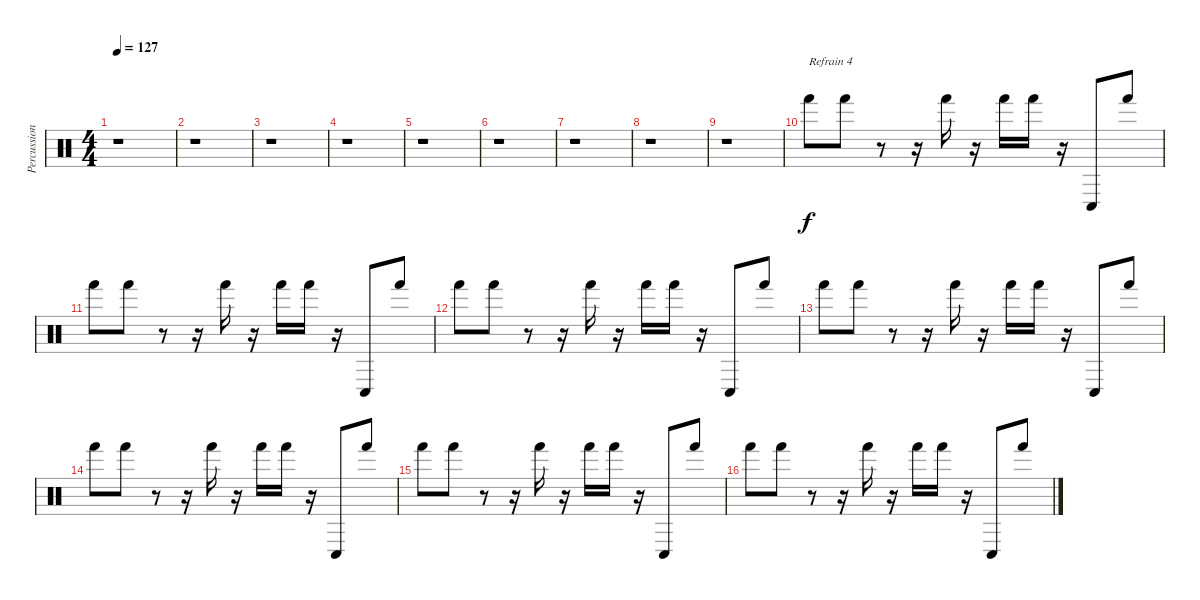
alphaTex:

\track ("Percussions" "Percussion") {instrument percussion}
\staff {score}
\articulation defaults
\ts (4 4)
\tempo 127
\clef neutral
\ks c
r.1{dy f} |
r.1 |
r.1 |
r.1 |
r.1 |
r.1 |
r.1 |
r.1 |
r.1 |
"Hand (hit)".8{txt "Refrain 4"} "Hand (hit)".8 r.8 r.16 "Hand (hit)".16 r.16 "Hand (hit)".16 "Hand (hit)".16 r.16 "Conga low (hit)".8 "Hand (hit)".8 |
"Hand (hit)".8 "Hand (hit)".8 r.8 r.16 "Hand (hit)".16 r.16 "Hand (hit)".16 "Hand (hit)".16 r.16 "Conga low (hit)".8 "Hand (hit)".8 |
"Hand (hit)".8 "Hand (hit)".8 r.8 r.16 "Hand (hit)".16 r.16 "Hand (hit)".16 "Hand (hit)".16 r.16 "Conga low (hit)".8 "Hand (hit)".8 |
"Hand (hit)".8 "Hand (hit)".8 r.8 r.16 "Hand (hit)".16 r.16 "Hand (hit)".16 "Hand (hit)".16 r.16 "Conga low (hit)".8 "Hand (hit)".8 |
"Hand (hit)".8 "Hand (hit)".8 r.8 r.16 "Hand (hit)".16 r.16 "Hand (hit)".16 "Hand (hit)".16 r.16 "Conga low (hit)".8 "Hand (hit)".8 |
"Hand (hit)".8 "Hand (hit)".8 r.8 r.16 "Hand (hit)".16 r.16 "Hand (hit)".16 "Hand (hit)".16 r.16 "Conga low (hit)".8 "Hand (hit)".8 |
"Hand (hit)".8 "Hand (hit)".8 r.8 r.16 "Hand (hit)".16 r.16 "Hand (hit)".16 "Hand (hit)".16 r.16 "Conga low (hit)".8 "Hand (hit)".8
